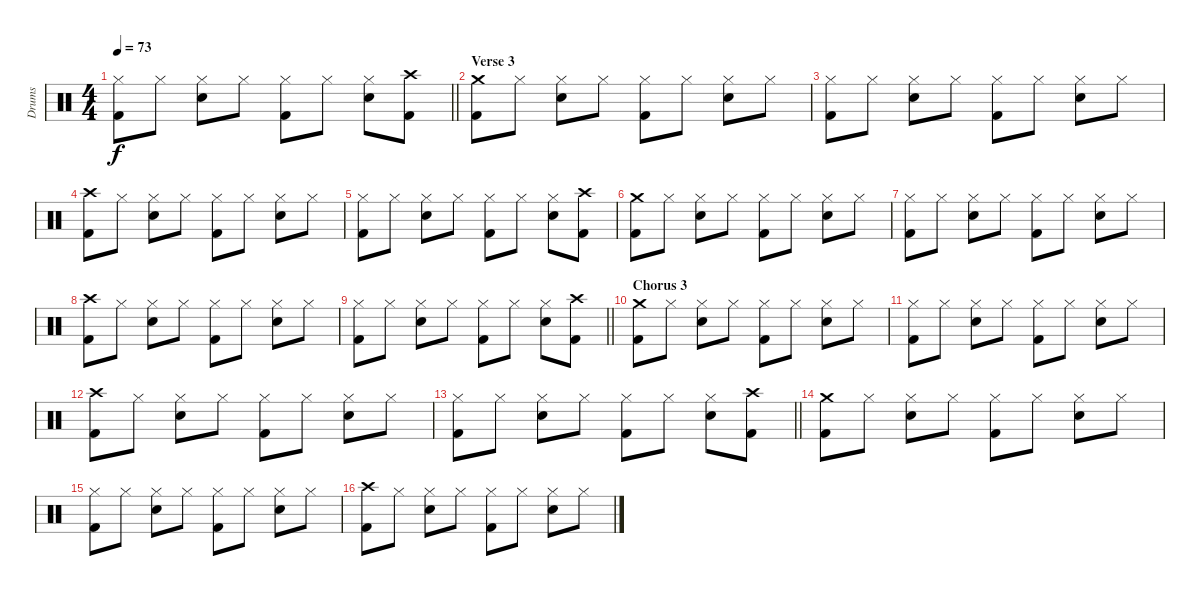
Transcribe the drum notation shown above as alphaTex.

\track ("Drums" "Drums") {instrument percussion}
\staff {score}
\articulation defaults
\ts (4 4)
\tempo 73
\clef neutral
\barLineRight lightlight
\ks c
("Hi-Hat (closed)" "Kick (hit) 2").8{dy f} "Hi-Hat (closed)".8 ("Hi-Hat (closed)" "Electric Snare (hit)").8 "Hi-Hat (closed)".8 ("Hi-Hat (closed)" "Kick (hit) 2").8 "Hi-Hat (closed)".8 ("Hi-Hat (closed)" "Electric Snare (hit)").8 ("Crash high (hit)" "Kick (hit) 2").8 |
\section ("" "Verse 3")
("Crash medium (hit)" "Kick (hit) 2").8 "Hi-Hat (closed)".8 ("Hi-Hat (closed)" "Electric Snare (hit)").8 "Hi-Hat (closed)".8 ("Hi-Hat (closed)" "Kick (hit) 2").8 "Hi-Hat (closed)".8 ("Hi-Hat (closed)" "Electric Snare (hit)").8 "Hi-Hat (closed)".8 |
("Hi-Hat (closed)" "Kick (hit) 2").8 "Hi-Hat (closed)".8 ("Hi-Hat (closed)" "Electric Snare (hit)").8 "Hi-Hat (closed)".8 ("Hi-Hat (closed)" "Kick (hit) 2").8 "Hi-Hat (closed)".8 ("Hi-Hat (closed)" "Electric Snare (hit)").8 "Hi-Hat (closed)".8 |
("Crash high (hit)" "Kick (hit) 2").8 "Hi-Hat (closed)".8 ("Hi-Hat (closed)" "Electric Snare (hit)").8 "Hi-Hat (closed)".8 ("Hi-Hat (closed)" "Kick (hit) 2").8 "Hi-Hat (closed)".8 ("Hi-Hat (closed)" "Electric Snare (hit)").8 "Hi-Hat (closed)".8 |
("Hi-Hat (closed)" "Kick (hit) 2").8 "Hi-Hat (closed)".8 ("Hi-Hat (closed)" "Electric Snare (hit)").8 "Hi-Hat (closed)".8 ("Hi-Hat (closed)" "Kick (hit) 2").8 "Hi-Hat (closed)".8 ("Hi-Hat (closed)" "Electric Snare (hit)").8 ("Crash high (hit)" "Kick (hit) 2").8 |
("Crash medium (hit)" "Kick (hit) 2").8 "Hi-Hat (closed)".8 ("Hi-Hat (closed)" "Electric Snare (hit)").8 "Hi-Hat (closed)".8 ("Hi-Hat (closed)" "Kick (hit) 2").8 "Hi-Hat (closed)".8 ("Hi-Hat (closed)" "Electric Snare (hit)").8 "Hi-Hat (closed)".8 |
("Hi-Hat (closed)" "Kick (hit) 2").8 "Hi-Hat (closed)".8 ("Hi-Hat (closed)" "Electric Snare (hit)").8 "Hi-Hat (closed)".8 ("Hi-Hat (closed)" "Kick (hit) 2").8 "Hi-Hat (closed)".8 ("Hi-Hat (closed)" "Electric Snare (hit)").8 "Hi-Hat (closed)".8 |
("Crash high (hit)" "Kick (hit) 2").8 "Hi-Hat (closed)".8 ("Hi-Hat (closed)" "Electric Snare (hit)").8 "Hi-Hat (closed)".8 ("Hi-Hat (closed)" "Kick (hit) 2").8 "Hi-Hat (closed)".8 ("Hi-Hat (closed)" "Electric Snare (hit)").8 "Hi-Hat (closed)".8 |
\barLineRight lightlight
("Hi-Hat (closed)" "Kick (hit) 2").8 "Hi-Hat (closed)".8 ("Hi-Hat (closed)" "Electric Snare (hit)").8 "Hi-Hat (closed)".8 ("Hi-Hat (closed)" "Kick (hit) 2").8 "Hi-Hat (closed)".8 ("Hi-Hat (closed)" "Electric Snare (hit)").8 ("Crash high (hit)" "Kick (hit) 2").8 |
\section ("" "Chorus 3")
("Crash medium (hit)" "Kick (hit) 2").8 "Hi-Hat (closed)".8 ("Hi-Hat (closed)" "Electric Snare (hit)").8 "Hi-Hat (closed)".8 ("Hi-Hat (closed)" "Kick (hit) 2").8 "Hi-Hat (closed)".8 ("Hi-Hat (closed)" "Electric Snare (hit)").8 "Hi-Hat (closed)".8 |
("Hi-Hat (closed)" "Kick (hit) 2").8 "Hi-Hat (closed)".8 ("Hi-Hat (closed)" "Electric Snare (hit)").8 "Hi-Hat (closed)".8 ("Hi-Hat (closed)" "Kick (hit) 2").8 "Hi-Hat (closed)".8 ("Hi-Hat (closed)" "Electric Snare (hit)").8 "Hi-Hat (closed)".8 |
("Crash high (hit)" "Kick (hit) 2").8 "Hi-Hat (closed)".8 ("Hi-Hat (closed)" "Electric Snare (hit)").8 "Hi-Hat (closed)".8 ("Hi-Hat (closed)" "Kick (hit) 2").8 "Hi-Hat (closed)".8 ("Hi-Hat (closed)" "Electric Snare (hit)").8 "Hi-Hat (closed)".8 |
\barLineRight lightlight
("Hi-Hat (closed)" "Kick (hit) 2").8 "Hi-Hat (closed)".8 ("Hi-Hat (closed)" "Electric Snare (hit)").8 "Hi-Hat (closed)".8 ("Hi-Hat (closed)" "Kick (hit) 2").8 "Hi-Hat (closed)".8 ("Hi-Hat (closed)" "Electric Snare (hit)").8 ("Crash high (hit)" "Kick (hit) 2").8 |
("Crash medium (hit)" "Kick (hit) 2").8 "Hi-Hat (closed)".8 ("Hi-Hat (closed)" "Electric Snare (hit)").8 "Hi-Hat (closed)".8 ("Hi-Hat (closed)" "Kick (hit) 2").8 "Hi-Hat (closed)".8 ("Hi-Hat (closed)" "Electric Snare (hit)").8 "Hi-Hat (closed)".8 |
("Hi-Hat (closed)" "Kick (hit) 2").8 "Hi-Hat (closed)".8 ("Hi-Hat (closed)" "Electric Snare (hit)").8 "Hi-Hat (closed)".8 ("Hi-Hat (closed)" "Kick (hit) 2").8 "Hi-Hat (closed)".8 ("Hi-Hat (closed)" "Electric Snare (hit)").8 "Hi-Hat (closed)".8 |
("Crash high (hit)" "Kick (hit) 2").8 "Hi-Hat (closed)".8 ("Hi-Hat (closed)" "Electric Snare (hit)").8 "Hi-Hat (closed)".8 ("Hi-Hat (closed)" "Kick (hit) 2").8 "Hi-Hat (closed)".8 ("Hi-Hat (closed)" "Electric Snare (hit)").8 "Hi-Hat (closed)".8
